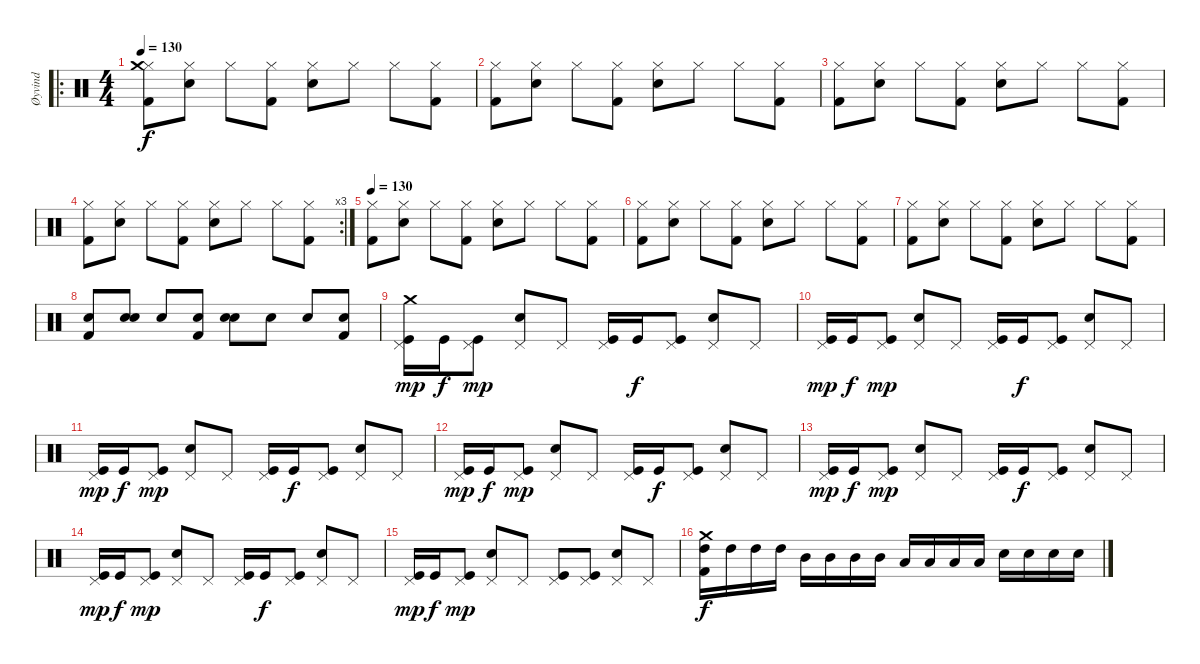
\track ("Øyvind" "Øyvind") {instrument percussion}
\staff {score}
\articulation defaults
\ro
\ts (4 4)
\tempo 130
\clef neutral
\ks c
("Hi-Hat (closed)" "Crash medium (hit)" "Kick (hit) 2").8{dy f} ("Hi-Hat (closed)" "Snare (hit)").8 "Hi-Hat (closed)".8 ("Hi-Hat (closed)" "Kick (hit) 2").8 ("Hi-Hat (closed)" "Snare (hit) 2").8 "Hi-Hat (closed)".8 "Hi-Hat (closed)".8 ("Hi-Hat (closed)" "Kick (hit) 2").8 |
("Hi-Hat (closed)" "Kick (hit) 2").8 ("Hi-Hat (closed)" "Snare (hit)").8 "Hi-Hat (closed)".8 ("Hi-Hat (closed)" "Kick (hit) 2").8 ("Hi-Hat (closed)" "Snare (hit) 2").8 "Hi-Hat (closed)".8 "Hi-Hat (closed)".8 ("Hi-Hat (closed)" "Kick (hit) 2").8 |
("Hi-Hat (closed)" "Kick (hit) 2").8 ("Hi-Hat (closed)" "Snare (hit)").8 "Hi-Hat (closed)".8 ("Hi-Hat (closed)" "Kick (hit) 2").8 ("Hi-Hat (closed)" "Snare (hit) 2").8 "Hi-Hat (closed)".8 "Hi-Hat (closed)".8 ("Hi-Hat (closed)" "Kick (hit) 2").8 |
\rc 3
("Hi-Hat (closed)" "Kick (hit) 2").8 ("Hi-Hat (closed)" "Snare (hit)").8 "Hi-Hat (closed)".8 ("Hi-Hat (closed)" "Kick (hit) 2").8 ("Hi-Hat (closed)" "Snare (hit) 2").8 "Hi-Hat (closed)".8 "Hi-Hat (closed)".8 ("Hi-Hat (closed)" "Kick (hit) 2").8 |
\tempo 130
("Hi-Hat (closed)" "Kick (hit) 2").8 ("Hi-Hat (closed)" "Snare (hit)").8 "Hi-Hat (closed)".8 ("Hi-Hat (closed)" "Kick (hit) 2").8 ("Hi-Hat (closed)" "Snare (hit) 2").8 "Hi-Hat (closed)".8 "Hi-Hat (closed)".8 ("Hi-Hat (closed)" "Kick (hit) 2").8 |
("Hi-Hat (closed)" "Kick (hit) 2").8 ("Hi-Hat (closed)" "Snare (hit)").8 "Hi-Hat (closed)".8 ("Hi-Hat (closed)" "Kick (hit) 2").8 ("Hi-Hat (closed)" "Snare (hit) 2").8 "Hi-Hat (closed)".8 "Hi-Hat (closed)".8 ("Hi-Hat (closed)" "Kick (hit) 2").8 |
("Hi-Hat (closed)" "Kick (hit) 2").8 ("Hi-Hat (closed)" "Snare (hit)").8 "Hi-Hat (closed)".8 ("Hi-Hat (closed)" "Kick (hit) 2").8 ("Hi-Hat (closed)" "Snare (hit) 2").8 "Hi-Hat (closed)".8 "Hi-Hat (closed)".8 ("Hi-Hat (closed)" "Kick (hit) 2").8 |
("Snare (hit) 2" "Kick (hit) 2").8 ("Snare (hit) 2" "Snare (hit)").8 "Snare (hit) 2".8 ("Snare (hit) 2" "Kick (hit) 2").8 ("Snare (hit) 2" "Snare (hit) 2").8 "Snare (hit) 2".8 "Snare (hit) 2".8 ("Snare (hit) 2" "Kick (hit) 2").8 |
("Crash medium (hit)" "Pedal Hi-Hat (hit)" "Kick (hit)").16{dy mp} "Kick (hit)".16{dy f} ("Pedal Hi-Hat (hit)" "Kick (hit)").8{dy mp} ("Pedal Hi-Hat (hit)" "Snare (hit) 2").8 "Pedal Hi-Hat (hit)".8 ("Pedal Hi-Hat (hit)" "Kick (hit)").16 "Kick (hit)".16{dy f} ("Pedal Hi-Hat (hit)" "Kick (hit)").8 ("Pedal Hi-Hat (hit)" "Snare (hit) 2").8 "Pedal Hi-Hat (hit)".8 |
("Pedal Hi-Hat (hit)" "Kick (hit)").16{dy mp} "Kick (hit)".16{dy f} ("Pedal Hi-Hat (hit)" "Kick (hit)").8{dy mp} ("Pedal Hi-Hat (hit)" "Snare (hit) 2").8 "Pedal Hi-Hat (hit)".8 ("Pedal Hi-Hat (hit)" "Kick (hit)").16 "Kick (hit)".16{dy f} ("Pedal Hi-Hat (hit)" "Kick (hit)").8 ("Pedal Hi-Hat (hit)" "Snare (hit) 2").8 "Pedal Hi-Hat (hit)".8 |
("Pedal Hi-Hat (hit)" "Kick (hit)").16{dy mp} "Kick (hit)".16{dy f} ("Pedal Hi-Hat (hit)" "Kick (hit)").8{dy mp} ("Pedal Hi-Hat (hit)" "Snare (hit) 2").8 "Pedal Hi-Hat (hit)".8 ("Pedal Hi-Hat (hit)" "Kick (hit)").16 "Kick (hit)".16{dy f} ("Pedal Hi-Hat (hit)" "Kick (hit)").8 ("Pedal Hi-Hat (hit)" "Snare (hit) 2").8 "Pedal Hi-Hat (hit)".8 |
("Pedal Hi-Hat (hit)" "Kick (hit)").16{dy mp} "Kick (hit)".16{dy f} ("Pedal Hi-Hat (hit)" "Kick (hit)").8{dy mp} ("Pedal Hi-Hat (hit)" "Snare (hit) 2").8 "Pedal Hi-Hat (hit)".8 ("Pedal Hi-Hat (hit)" "Kick (hit)").16 "Kick (hit)".16{dy f} ("Pedal Hi-Hat (hit)" "Kick (hit)").8 ("Pedal Hi-Hat (hit)" "Snare (hit) 2").8 "Pedal Hi-Hat (hit)".8 |
("Pedal Hi-Hat (hit)" "Kick (hit)").16{dy mp} "Kick (hit)".16{dy f} ("Pedal Hi-Hat (hit)" "Kick (hit)").8{dy mp} ("Pedal Hi-Hat (hit)" "Snare (hit) 2").8 "Pedal Hi-Hat (hit)".8 ("Pedal Hi-Hat (hit)" "Kick (hit)").16 "Kick (hit)".16{dy f} ("Pedal Hi-Hat (hit)" "Kick (hit)").8 ("Pedal Hi-Hat (hit)" "Snare (hit) 2").8 "Pedal Hi-Hat (hit)".8 |
("Pedal Hi-Hat (hit)" "Kick (hit)").16{dy mp} "Kick (hit)".16{dy f} ("Pedal Hi-Hat (hit)" "Kick (hit)").8{dy mp} ("Pedal Hi-Hat (hit)" "Snare (hit) 2").8 "Pedal Hi-Hat (hit)".8 ("Pedal Hi-Hat (hit)" "Kick (hit)").16 "Kick (hit)".16{dy f} ("Pedal Hi-Hat (hit)" "Kick (hit)").8 ("Pedal Hi-Hat (hit)" "Snare (hit) 2").8 "Pedal Hi-Hat (hit)".8 |
("Pedal Hi-Hat (hit)" "Kick (hit)").16{dy mp} "Kick (hit)".16{dy f} ("Pedal Hi-Hat (hit)" "Kick (hit)").8{dy mp} ("Pedal Hi-Hat (hit)" "Snare (hit) 2").8 "Pedal Hi-Hat (hit)".8 ("Pedal Hi-Hat (hit)" "Kick (hit)").8 ("Pedal Hi-Hat (hit)" "Kick (hit)").8 ("Pedal Hi-Hat (hit)" "Snare (hit) 2").8 "Pedal Hi-Hat (hit)".8 |
("High Tom (hit)" "Crash medium (hit)" "Kick (hit) 2").16{dy f} "High Tom (hit)".16 "High Tom (hit)".16 "High Tom (hit)".16 "Mid Tom (hit)".16 "Mid Tom (hit)".16 "Mid Tom (hit)".16 "Mid Tom (hit)".16 "Low Tom (hit)".16 "Low Tom (hit)".16 "Low Tom (hit)".16 "Low Tom (hit)".16 "Snare (hit) 2".16 "Snare (hit) 2".16 "Snare (hit) 2".16 "Snare (hit) 2".16
